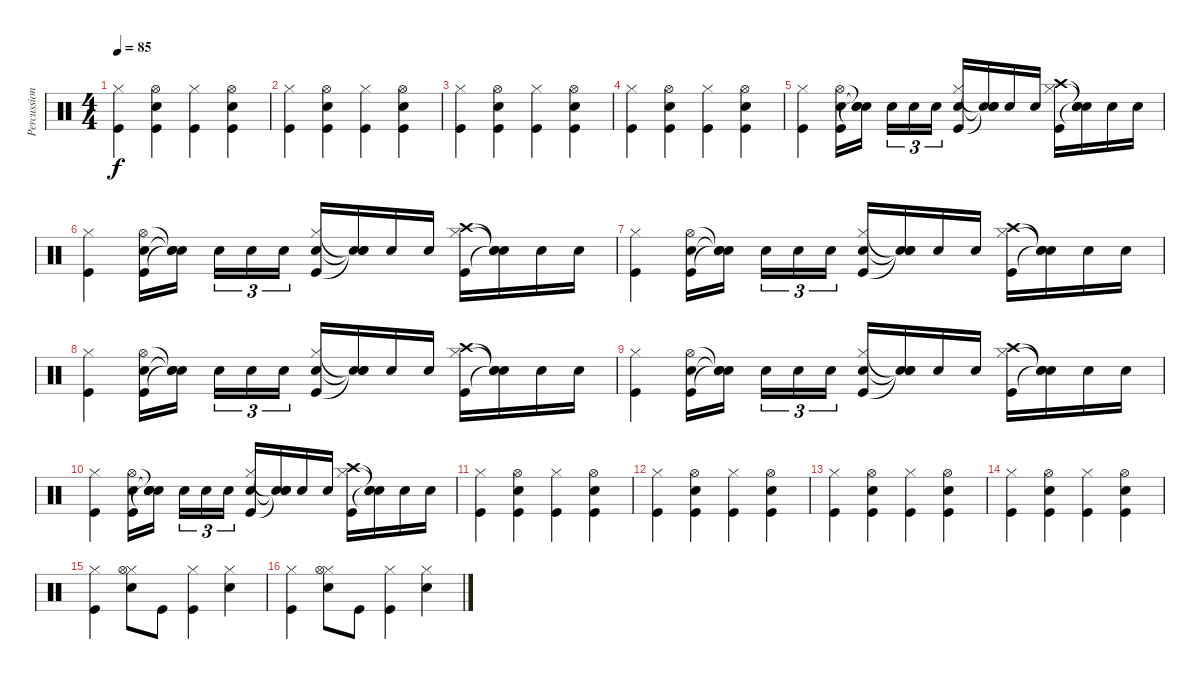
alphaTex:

\track ("Percussions" "Percussion") {instrument percussion}
\staff {score}
\articulation defaults
\ts (4 4)
\tempo 85
\clef neutral
\ks c
("Kick (hit)" "Hi-Hat (closed)").4{dy f} ("Kick (hit)" "Snare (hit) 2" "Hi-Hat (open)").4 ("Kick (hit)" "Hi-Hat (closed)").4 ("Kick (hit)" "Snare (hit) 2" "Hi-Hat (open)").4 |
("Kick (hit)" "Hi-Hat (closed)").4 ("Kick (hit)" "Snare (hit) 2" "Hi-Hat (open)").4 ("Kick (hit)" "Hi-Hat (closed)").4 ("Kick (hit)" "Snare (hit) 2" "Hi-Hat (open)").4 |
("Kick (hit)" "Hi-Hat (closed)").4 ("Kick (hit)" "Snare (hit) 2" "Hi-Hat (open)").4 ("Kick (hit)" "Hi-Hat (closed)").4 ("Kick (hit)" "Snare (hit) 2" "Hi-Hat (open)").4 |
("Kick (hit)" "Hi-Hat (closed)").4 ("Kick (hit)" "Snare (hit) 2" "Hi-Hat (open)").4 ("Kick (hit)" "Hi-Hat (closed)").4 ("Kick (hit)" "Snare (hit) 2" "Hi-Hat (open)").4 |
("Hi-Hat (closed)" "Kick (hit)").4 ("Kick (hit)" "Snare (hit) 2" "Hi-Hat (open)").16 ("Snare (hit)"{t} "Snare (hit)"{t} "Snare (hit)"{t}).16 "Snare (hit) 2".16{tu (3 2)} "Snare (hit) 2".16{tu (3 2)} "Snare (hit) 2".16{tu (3 2)} ("Hi-Hat (closed)" "Snare (hit) 2" "Kick (hit)").16 ("Snare (hit)"{t} "Snare (hit)"{t} "Snare (hit)"{t}).16 "Snare (hit) 2".16 "Snare (hit) 2".16 ("Hi-Hat (closed)" "Kick (hit)" "Crash high (hit)").16 ("Snare (hit)"{t} "Snare (hit)"{t} "Snare (hit)"{t}).16 "Snare (hit) 2".16 "Snare (hit) 2".16 |
("Hi-Hat (closed)" "Kick (hit)").4 ("Kick (hit)" "Snare (hit) 2" "Hi-Hat (open)").16 ("Snare (hit)"{t} "Snare (hit)"{t} "Snare (hit)"{t}).16 "Snare (hit) 2".16{tu (3 2)} "Snare (hit) 2".16{tu (3 2)} "Snare (hit) 2".16{tu (3 2)} ("Hi-Hat (closed)" "Snare (hit) 2" "Kick (hit)").16 ("Snare (hit)"{t} "Snare (hit)"{t} "Snare (hit)"{t}).16 "Snare (hit) 2".16 "Snare (hit) 2".16 ("Hi-Hat (closed)" "Kick (hit)" "Crash high (hit)").16 ("Snare (hit)"{t} "Snare (hit)"{t} "Snare (hit)"{t}).16 "Snare (hit) 2".16 "Snare (hit) 2".16 |
("Hi-Hat (closed)" "Kick (hit)").4 ("Kick (hit)" "Snare (hit) 2" "Hi-Hat (open)").16 ("Snare (hit)"{t} "Snare (hit)"{t} "Snare (hit)"{t}).16 "Snare (hit) 2".16{tu (3 2)} "Snare (hit) 2".16{tu (3 2)} "Snare (hit) 2".16{tu (3 2)} ("Hi-Hat (closed)" "Snare (hit) 2" "Kick (hit)").16 ("Snare (hit)"{t} "Snare (hit)"{t} "Snare (hit)"{t}).16 "Snare (hit) 2".16 "Snare (hit) 2".16 ("Hi-Hat (closed)" "Kick (hit)" "Crash high (hit)").16 ("Snare (hit)"{t} "Snare (hit)"{t} "Snare (hit)"{t}).16 "Snare (hit) 2".16 "Snare (hit) 2".16 |
("Hi-Hat (closed)" "Kick (hit)").4 ("Kick (hit)" "Snare (hit) 2" "Hi-Hat (open)").16 ("Snare (hit)"{t} "Snare (hit)"{t} "Snare (hit)"{t}).16 "Snare (hit) 2".16{tu (3 2)} "Snare (hit) 2".16{tu (3 2)} "Snare (hit) 2".16{tu (3 2)} ("Hi-Hat (closed)" "Snare (hit) 2" "Kick (hit)").16 ("Snare (hit)"{t} "Snare (hit)"{t} "Snare (hit)"{t}).16 "Snare (hit) 2".16 "Snare (hit) 2".16 ("Hi-Hat (closed)" "Kick (hit)" "Crash high (hit)").16 ("Snare (hit)"{t} "Snare (hit)"{t} "Snare (hit)"{t}).16 "Snare (hit) 2".16 "Snare (hit) 2".16 |
("Hi-Hat (closed)" "Kick (hit)").4 ("Kick (hit)" "Snare (hit) 2" "Hi-Hat (open)").16 ("Snare (hit)"{t} "Snare (hit)"{t} "Snare (hit)"{t}).16 "Snare (hit) 2".16{tu (3 2)} "Snare (hit) 2".16{tu (3 2)} "Snare (hit) 2".16{tu (3 2)} ("Hi-Hat (closed)" "Snare (hit) 2" "Kick (hit)").16 ("Snare (hit)"{t} "Snare (hit)"{t} "Snare (hit)"{t}).16 "Snare (hit) 2".16 "Snare (hit) 2".16 ("Hi-Hat (closed)" "Kick (hit)" "Crash high (hit)").16 ("Snare (hit)"{t} "Snare (hit)"{t} "Snare (hit)"{t}).16 "Snare (hit) 2".16 "Snare (hit) 2".16 |
("Hi-Hat (closed)" "Kick (hit)").4 ("Kick (hit)" "Snare (hit) 2" "Hi-Hat (open)").16 ("Snare (hit)"{t} "Snare (hit)"{t} "Snare (hit)"{t}).16 "Snare (hit) 2".16{tu (3 2)} "Snare (hit) 2".16{tu (3 2)} "Snare (hit) 2".16{tu (3 2)} ("Hi-Hat (closed)" "Snare (hit) 2" "Kick (hit)").16 ("Snare (hit)"{t} "Snare (hit)"{t} "Snare (hit)"{t}).16 "Snare (hit) 2".16 "Snare (hit) 2".16 ("Hi-Hat (closed)" "Kick (hit)" "Crash high (hit)").16 ("Snare (hit)"{t} "Snare (hit)"{t} "Snare (hit)"{t}).16 "Snare (hit) 2".16 "Snare (hit) 2".16 |
("Kick (hit)" "Hi-Hat (closed)").4 ("Kick (hit)" "Snare (hit) 2" "Hi-Hat (open)").4 ("Kick (hit)" "Hi-Hat (closed)").4 ("Kick (hit)" "Snare (hit) 2" "Hi-Hat (open)").4 |
("Kick (hit)" "Hi-Hat (closed)").4 ("Kick (hit)" "Snare (hit) 2" "Hi-Hat (open)").4 ("Kick (hit)" "Hi-Hat (closed)").4 ("Kick (hit)" "Snare (hit) 2" "Hi-Hat (open)").4 |
("Kick (hit)" "Hi-Hat (closed)").4 ("Kick (hit)" "Snare (hit) 2" "Hi-Hat (open)").4 ("Kick (hit)" "Hi-Hat (closed)").4 ("Kick (hit)" "Snare (hit) 2" "Hi-Hat (open)").4 |
("Kick (hit)" "Hi-Hat (closed)").4 ("Kick (hit)" "Snare (hit) 2" "Hi-Hat (open)").4 ("Kick (hit)" "Hi-Hat (closed)").4 ("Kick (hit)" "Snare (hit) 2" "Hi-Hat (open)").4 |
("Hi-Hat (closed)" "Kick (hit)").4 ("Hi-Hat (closed)" "Hi-Hat (open)" "Snare (hit) 2").8 "Kick (hit)".8 ("Hi-Hat (closed)" "Kick (hit)").4 ("Hi-Hat (closed)" "Snare (hit) 2").4 |
("Hi-Hat (closed)" "Kick (hit)").4 ("Hi-Hat (closed)" "Hi-Hat (open)" "Snare (hit) 2").8 "Kick (hit)".8 ("Hi-Hat (closed)" "Kick (hit)").4 ("Hi-Hat (closed)" "Snare (hit) 2").4
